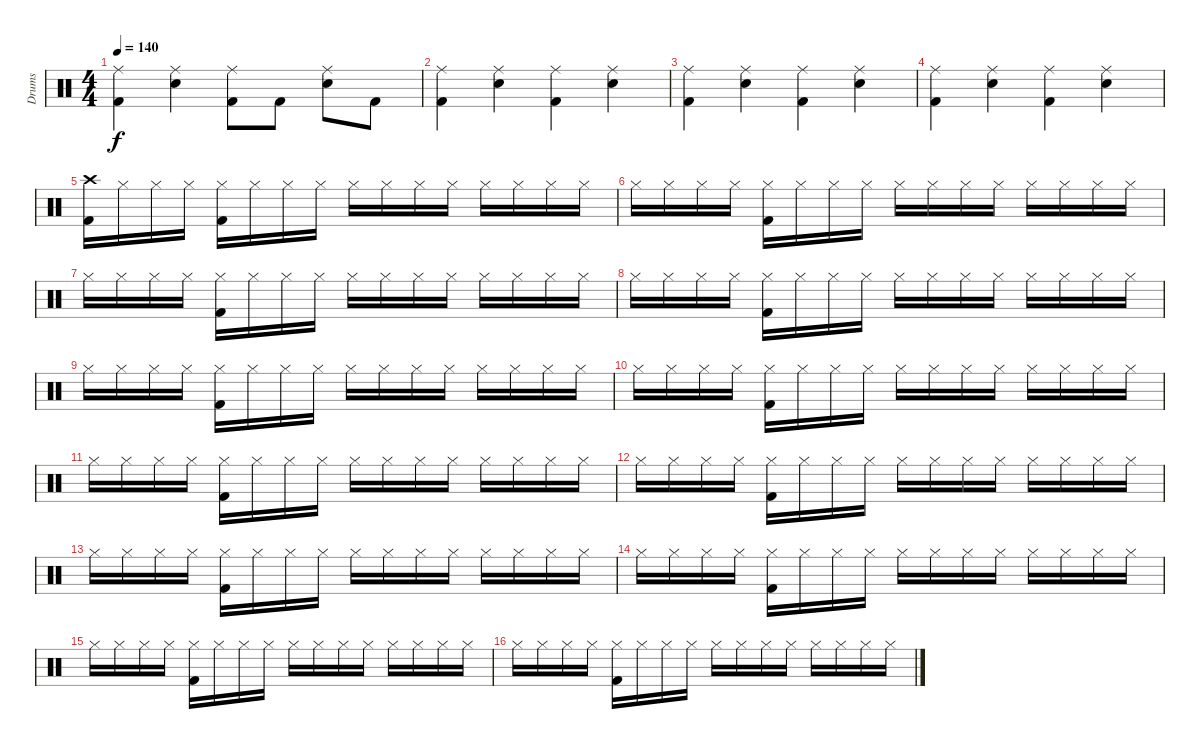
\track ("Drums" "Drums") {instrument percussion}
\staff {score}
\articulation defaults
\ts (4 4)
\tempo 140
\clef neutral
\ks c
("Ride (middle)" "Kick (hit) 2").4{dy f} ("Ride (middle)" "Electric Snare (hit)").4 ("Ride (middle)" "Kick (hit) 2").8 "Kick (hit) 2".8 ("Ride (middle)" "Electric Snare (hit)").8 "Kick (hit) 2".8 |
("Ride (middle)" "Kick (hit) 2").4 ("Ride (middle)" "Electric Snare (hit)").4 ("Ride (middle)" "Kick (hit) 2").4 ("Ride (middle)" "Electric Snare (hit)").4 |
("Ride (middle)" "Kick (hit) 2").4 ("Ride (middle)" "Electric Snare (hit)").4 ("Ride (middle)" "Kick (hit) 2").4 ("Ride (middle)" "Electric Snare (hit)").4 |
("Ride (middle)" "Kick (hit) 2").4 ("Ride (middle)" "Electric Snare (hit)").4 ("Ride (middle)" "Kick (hit) 2").4 ("Ride (middle)" "Electric Snare (hit)").4 |
("Crash high (hit)" "Kick (hit) 2").16 "Hi-Hat (closed)".16 "Hi-Hat (closed)".16 "Hi-Hat (closed)".16 ("Hi-Hat (closed)" "Kick (hit) 2").16 "Hi-Hat (closed)".16 "Hi-Hat (closed)".16 "Hi-Hat (closed)".16 "Hi-Hat (closed)".16 "Hi-Hat (closed)".16 "Hi-Hat (closed)".16 "Hi-Hat (closed)".16 "Hi-Hat (closed)".16 "Hi-Hat (closed)".16 "Hi-Hat (closed)".16 "Hi-Hat (closed)".16 |
"Hi-Hat (closed)".16 "Hi-Hat (closed)".16 "Hi-Hat (closed)".16 "Hi-Hat (closed)".16 ("Hi-Hat (closed)" "Kick (hit) 2").16 "Hi-Hat (closed)".16 "Hi-Hat (closed)".16 "Hi-Hat (closed)".16 "Hi-Hat (closed)".16 "Hi-Hat (closed)".16 "Hi-Hat (closed)".16 "Hi-Hat (closed)".16 "Hi-Hat (closed)".16 "Hi-Hat (closed)".16 "Hi-Hat (closed)".16 "Hi-Hat (closed)".16 |
"Hi-Hat (closed)".16 "Hi-Hat (closed)".16 "Hi-Hat (closed)".16 "Hi-Hat (closed)".16 ("Hi-Hat (closed)" "Kick (hit) 2").16 "Hi-Hat (closed)".16 "Hi-Hat (closed)".16 "Hi-Hat (closed)".16 "Hi-Hat (closed)".16 "Hi-Hat (closed)".16 "Hi-Hat (closed)".16 "Hi-Hat (closed)".16 "Hi-Hat (closed)".16 "Hi-Hat (closed)".16 "Hi-Hat (closed)".16 "Hi-Hat (closed)".16 |
"Hi-Hat (closed)".16 "Hi-Hat (closed)".16 "Hi-Hat (closed)".16 "Hi-Hat (closed)".16 ("Hi-Hat (closed)" "Kick (hit) 2").16 "Hi-Hat (closed)".16 "Hi-Hat (closed)".16 "Hi-Hat (closed)".16 "Hi-Hat (closed)".16 "Hi-Hat (closed)".16 "Hi-Hat (closed)".16 "Hi-Hat (closed)".16 "Hi-Hat (closed)".16 "Hi-Hat (closed)".16 "Hi-Hat (closed)".16 "Hi-Hat (closed)".16 |
"Hi-Hat (closed)".16 "Hi-Hat (closed)".16 "Hi-Hat (closed)".16 "Hi-Hat (closed)".16 ("Hi-Hat (closed)" "Kick (hit) 2").16 "Hi-Hat (closed)".16 "Hi-Hat (closed)".16 "Hi-Hat (closed)".16 "Hi-Hat (closed)".16 "Hi-Hat (closed)".16 "Hi-Hat (closed)".16 "Hi-Hat (closed)".16 "Hi-Hat (closed)".16 "Hi-Hat (closed)".16 "Hi-Hat (closed)".16 "Hi-Hat (closed)".16 |
"Hi-Hat (closed)".16 "Hi-Hat (closed)".16 "Hi-Hat (closed)".16 "Hi-Hat (closed)".16 ("Hi-Hat (closed)" "Kick (hit) 2").16 "Hi-Hat (closed)".16 "Hi-Hat (closed)".16 "Hi-Hat (closed)".16 "Hi-Hat (closed)".16 "Hi-Hat (closed)".16 "Hi-Hat (closed)".16 "Hi-Hat (closed)".16 "Hi-Hat (closed)".16 "Hi-Hat (closed)".16 "Hi-Hat (closed)".16 "Hi-Hat (closed)".16 |
"Hi-Hat (closed)".16 "Hi-Hat (closed)".16 "Hi-Hat (closed)".16 "Hi-Hat (closed)".16 ("Hi-Hat (closed)" "Kick (hit) 2").16 "Hi-Hat (closed)".16 "Hi-Hat (closed)".16 "Hi-Hat (closed)".16 "Hi-Hat (closed)".16 "Hi-Hat (closed)".16 "Hi-Hat (closed)".16 "Hi-Hat (closed)".16 "Hi-Hat (closed)".16 "Hi-Hat (closed)".16 "Hi-Hat (closed)".16 "Hi-Hat (closed)".16 |
"Hi-Hat (closed)".16 "Hi-Hat (closed)".16 "Hi-Hat (closed)".16 "Hi-Hat (closed)".16 ("Hi-Hat (closed)" "Kick (hit) 2").16 "Hi-Hat (closed)".16 "Hi-Hat (closed)".16 "Hi-Hat (closed)".16 "Hi-Hat (closed)".16 "Hi-Hat (closed)".16 "Hi-Hat (closed)".16 "Hi-Hat (closed)".16 "Hi-Hat (closed)".16 "Hi-Hat (closed)".16 "Hi-Hat (closed)".16 "Hi-Hat (closed)".16 |
"Hi-Hat (closed)".16 "Hi-Hat (closed)".16 "Hi-Hat (closed)".16 "Hi-Hat (closed)".16 ("Hi-Hat (closed)" "Kick (hit) 2").16 "Hi-Hat (closed)".16 "Hi-Hat (closed)".16 "Hi-Hat (closed)".16 "Hi-Hat (closed)".16 "Hi-Hat (closed)".16 "Hi-Hat (closed)".16 "Hi-Hat (closed)".16 "Hi-Hat (closed)".16 "Hi-Hat (closed)".16 "Hi-Hat (closed)".16 "Hi-Hat (closed)".16 |
"Hi-Hat (closed)".16 "Hi-Hat (closed)".16 "Hi-Hat (closed)".16 "Hi-Hat (closed)".16 ("Hi-Hat (closed)" "Kick (hit) 2").16 "Hi-Hat (closed)".16 "Hi-Hat (closed)".16 "Hi-Hat (closed)".16 "Hi-Hat (closed)".16 "Hi-Hat (closed)".16 "Hi-Hat (closed)".16 "Hi-Hat (closed)".16 "Hi-Hat (closed)".16 "Hi-Hat (closed)".16 "Hi-Hat (closed)".16 "Hi-Hat (closed)".16 |
"Hi-Hat (closed)".16 "Hi-Hat (closed)".16 "Hi-Hat (closed)".16 "Hi-Hat (closed)".16 ("Hi-Hat (closed)" "Kick (hit) 2").16 "Hi-Hat (closed)".16 "Hi-Hat (closed)".16 "Hi-Hat (closed)".16 "Hi-Hat (closed)".16 "Hi-Hat (closed)".16 "Hi-Hat (closed)".16 "Hi-Hat (closed)".16 "Hi-Hat (closed)".16 "Hi-Hat (closed)".16 "Hi-Hat (closed)".16 "Hi-Hat (closed)".16 |
"Hi-Hat (closed)".16 "Hi-Hat (closed)".16 "Hi-Hat (closed)".16 "Hi-Hat (closed)".16 ("Hi-Hat (closed)" "Kick (hit) 2").16 "Hi-Hat (closed)".16 "Hi-Hat (closed)".16 "Hi-Hat (closed)".16 "Hi-Hat (closed)".16 "Hi-Hat (closed)".16 "Hi-Hat (closed)".16 "Hi-Hat (closed)".16 "Hi-Hat (closed)".16 "Hi-Hat (closed)".16 "Hi-Hat (closed)".16 "Hi-Hat (closed)".16
